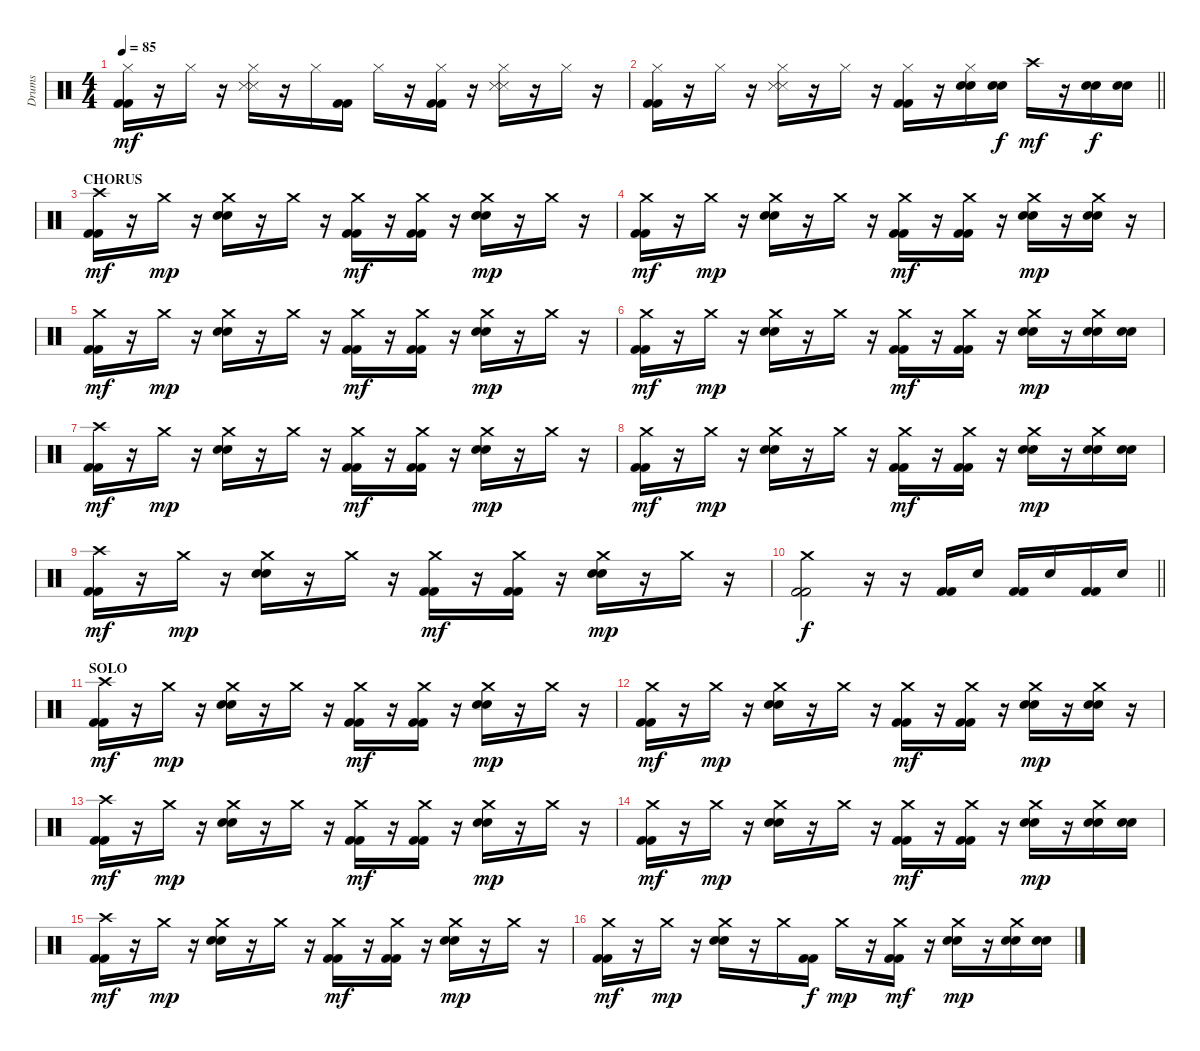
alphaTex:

\track ("Drums" "Drums") {instrument percussion}
\staff {score}
\articulation defaults
\ts (4 4)
\tempo 85
\clef neutral
\ks c
("Hi-Hat (closed)" "Kick (hit) 2" "Kick (hit) 2").16{dy mf} r.16 "Hi-Hat (closed)".16 r.16 ("Hi-Hat (closed)" "Snare (side stick) 3" "Snare (side stick) 3").16 r.16 "Hi-Hat (closed)".16 ("Kick (hit) 2" "Kick (hit) 2").16 "Hi-Hat (closed)".16 r.16 ("Hi-Hat (closed)" "Kick (hit) 2" "Kick (hit) 2").16 r.16 ("Hi-Hat (closed)" "Snare (side stick) 3" "Snare (side stick) 3").16 r.16 "Hi-Hat (closed)".16 r.16 |
\barLineRight lightlight
("Hi-Hat (closed)" "Kick (hit) 2" "Kick (hit) 2").16 r.16 "Hi-Hat (closed)".16 r.16 ("Hi-Hat (closed)" "Snare (side stick) 3" "Snare (side stick) 3").16 r.16 "Hi-Hat (closed)".16 r.16 ("Hi-Hat (closed)" "Kick (hit) 2" "Kick (hit) 2").16 r.16 ("Hi-Hat (closed)" "Electric Snare (hit)" "Electric Snare (hit)").16 ("Electric Snare (hit)" "Electric Snare (hit)").16{dy f} "Crash high (hit)".16{dy mf} r.16 ("Electric Snare (hit)" "Electric Snare (hit)").16{dy f} ("Electric Snare (hit)" "Electric Snare (hit)").16 |
\section ("" "CHORUS")
("Crash high (hit)" "Kick (hit) 2" "Kick (hit) 2").16{dy mf} r.16 "Crash medium (hit)".16{dy mp} r.16 ("Crash medium (hit)" "Snare (hit) 2" "Electric Snare (hit)").16 r.16 "Crash medium (hit)".16 r.16 ("Crash medium (hit)" "Kick (hit) 2" "Kick (hit) 2").16{dy mf} r.16 ("Crash medium (hit)" "Kick (hit) 2" "Kick (hit) 2").16 r.16 ("Crash medium (hit)" "Snare (hit) 2" "Electric Snare (hit)").16{dy mp} r.16 "Crash medium (hit)".16 r.16 |
("Crash medium (hit)" "Kick (hit) 2" "Kick (hit) 2").16{dy mf} r.16 "Crash medium (hit)".16{dy mp} r.16 ("Crash medium (hit)" "Snare (hit) 2" "Electric Snare (hit)").16 r.16 "Crash medium (hit)".16 r.16 ("Crash medium (hit)" "Kick (hit) 2" "Kick (hit) 2").16{dy mf} r.16 ("Crash medium (hit)" "Kick (hit) 2" "Kick (hit) 2").16 r.16 ("Crash medium (hit)" "Snare (hit) 2" "Electric Snare (hit)").16{dy mp} r.16 ("Crash medium (hit)" "Snare (hit) 2" "Electric Snare (hit)").16 r.16 |
("Crash medium (hit)" "Kick (hit) 2" "Kick (hit) 2").16{dy mf} r.16 "Crash medium (hit)".16{dy mp} r.16 ("Crash medium (hit)" "Snare (hit) 2" "Electric Snare (hit)").16 r.16 "Crash medium (hit)".16 r.16 ("Crash medium (hit)" "Kick (hit) 2" "Kick (hit) 2").16{dy mf} r.16 ("Crash medium (hit)" "Kick (hit) 2" "Kick (hit) 2").16 r.16 ("Crash medium (hit)" "Snare (hit) 2" "Electric Snare (hit)").16{dy mp} r.16 "Crash medium (hit)".16 r.16 |
("Crash medium (hit)" "Kick (hit) 2" "Kick (hit) 2").16{dy mf} r.16 "Crash medium (hit)".16{dy mp} r.16 ("Crash medium (hit)" "Snare (hit) 2" "Electric Snare (hit)").16 r.16 "Crash medium (hit)".16 r.16 ("Crash medium (hit)" "Kick (hit) 2" "Kick (hit) 2").16{dy mf} r.16 ("Crash medium (hit)" "Kick (hit) 2" "Kick (hit) 2").16 r.16 ("Crash medium (hit)" "Snare (hit) 2" "Electric Snare (hit)").16{dy mp} r.16 ("Crash medium (hit)" "Snare (hit) 2" "Electric Snare (hit)").16 ("Snare (hit) 2" "Electric Snare (hit)").16 |
("Crash high (hit)" "Kick (hit) 2" "Kick (hit) 2").16{dy mf} r.16 "Crash medium (hit)".16{dy mp} r.16 ("Crash medium (hit)" "Snare (hit) 2" "Electric Snare (hit)").16 r.16 "Crash medium (hit)".16 r.16 ("Crash medium (hit)" "Kick (hit) 2" "Kick (hit) 2").16{dy mf} r.16 ("Crash medium (hit)" "Kick (hit) 2" "Kick (hit) 2").16 r.16 ("Crash medium (hit)" "Snare (hit) 2" "Electric Snare (hit)").16{dy mp} r.16 "Crash medium (hit)".16 r.16 |
("Crash medium (hit)" "Kick (hit) 2" "Kick (hit) 2").16{dy mf} r.16 "Crash medium (hit)".16{dy mp} r.16 ("Crash medium (hit)" "Snare (hit) 2" "Electric Snare (hit)").16 r.16 "Crash medium (hit)".16 r.16 ("Crash medium (hit)" "Kick (hit) 2" "Kick (hit) 2").16{dy mf} r.16 ("Crash medium (hit)" "Kick (hit) 2" "Kick (hit) 2").16 r.16 ("Crash medium (hit)" "Snare (hit) 2" "Electric Snare (hit)").16{dy mp} r.16 ("Crash medium (hit)" "Snare (hit) 2" "Electric Snare (hit)").16 ("Snare (hit) 2" "Electric Snare (hit)").16 |
("Crash high (hit)" "Kick (hit) 2" "Kick (hit) 2").16{dy mf} r.16 "Crash medium (hit)".16{dy mp} r.16 ("Crash medium (hit)" "Snare (hit) 2" "Electric Snare (hit)").16 r.16 "Crash medium (hit)".16 r.16 ("Crash medium (hit)" "Kick (hit) 2" "Kick (hit) 2").16{dy mf} r.16 ("Crash medium (hit)" "Kick (hit) 2" "Kick (hit) 2").16 r.16 ("Crash medium (hit)" "Snare (hit) 2" "Electric Snare (hit)").16{dy mp} r.16 "Crash medium (hit)".16 r.16 |
\barLineRight lightlight
("Crash medium (hit)" "Kick (hit) 2" "Kick (hit) 2").2{dy f} r.16 r.16 ("Kick (hit) 2" "Kick (hit) 2").16 "Electric Snare (hit)".16 ("Kick (hit) 2" "Kick (hit) 2").16 "Electric Snare (hit)".16 ("Kick (hit) 2" "Kick (hit) 2").16 "Electric Snare (hit)".16 |
\section ("" "SOLO")
("Crash high (hit)" "Kick (hit) 2" "Kick (hit) 2").16{dy mf} r.16 "Crash medium (hit)".16{dy mp} r.16 ("Crash medium (hit)" "Snare (hit) 2" "Electric Snare (hit)").16 r.16 "Crash medium (hit)".16 r.16 ("Crash medium (hit)" "Kick (hit) 2" "Kick (hit) 2").16{dy mf} r.16 ("Crash medium (hit)" "Kick (hit) 2" "Kick (hit) 2").16 r.16 ("Crash medium (hit)" "Snare (hit) 2" "Electric Snare (hit)").16{dy mp} r.16 "Crash medium (hit)".16 r.16 |
("Crash medium (hit)" "Kick (hit) 2" "Kick (hit) 2").16{dy mf} r.16 "Crash medium (hit)".16{dy mp} r.16 ("Crash medium (hit)" "Snare (hit) 2" "Electric Snare (hit)").16 r.16 "Crash medium (hit)".16 r.16 ("Crash medium (hit)" "Kick (hit) 2" "Kick (hit) 2").16{dy mf} r.16 ("Crash medium (hit)" "Kick (hit) 2" "Kick (hit) 2").16 r.16 ("Crash medium (hit)" "Snare (hit) 2" "Electric Snare (hit)").16{dy mp} r.16 ("Crash medium (hit)" "Snare (hit) 2" "Electric Snare (hit)").16 r.16 |
("Crash high (hit)" "Kick (hit) 2" "Kick (hit) 2").16{dy mf} r.16 "Crash medium (hit)".16{dy mp} r.16 ("Crash medium (hit)" "Snare (hit) 2" "Electric Snare (hit)").16 r.16 "Crash medium (hit)".16 r.16 ("Crash medium (hit)" "Kick (hit) 2" "Kick (hit) 2").16{dy mf} r.16 ("Crash medium (hit)" "Kick (hit) 2" "Kick (hit) 2").16 r.16 ("Crash medium (hit)" "Snare (hit) 2" "Electric Snare (hit)").16{dy mp} r.16 "Crash medium (hit)".16 r.16 |
("Crash medium (hit)" "Kick (hit) 2" "Kick (hit) 2").16{dy mf} r.16 "Crash medium (hit)".16{dy mp} r.16 ("Crash medium (hit)" "Snare (hit) 2" "Electric Snare (hit)").16 r.16 "Crash medium (hit)".16 r.16 ("Crash medium (hit)" "Kick (hit) 2" "Kick (hit) 2").16{dy mf} r.16 ("Crash medium (hit)" "Kick (hit) 2" "Kick (hit) 2").16 r.16 ("Crash medium (hit)" "Snare (hit) 2" "Electric Snare (hit)").16{dy mp} r.16 ("Crash medium (hit)" "Snare (hit) 2" "Electric Snare (hit)").16 ("Snare (hit) 2" "Electric Snare (hit)").16 |
("Crash high (hit)" "Kick (hit) 2" "Kick (hit) 2").16{dy mf} r.16 "Crash medium (hit)".16{dy mp} r.16 ("Crash medium (hit)" "Snare (hit) 2" "Electric Snare (hit)").16 r.16 "Crash medium (hit)".16 r.16 ("Crash medium (hit)" "Kick (hit) 2" "Kick (hit) 2").16{dy mf} r.16 ("Crash medium (hit)" "Kick (hit) 2" "Kick (hit) 2").16 r.16 ("Crash medium (hit)" "Snare (hit) 2" "Electric Snare (hit)").16{dy mp} r.16 "Crash medium (hit)".16 r.16 |
("Crash medium (hit)" "Kick (hit) 2" "Kick (hit) 2").16{dy mf} r.16 "Crash medium (hit)".16{dy mp} r.16 ("Crash medium (hit)" "Snare (hit) 2" "Electric Snare (hit)").16 r.16 "Crash medium (hit)".16 ("Kick (hit) 2" "Kick (hit) 2").16{dy f} "Crash medium (hit)".16{dy mp} r.16 ("Crash medium (hit)" "Kick (hit) 2" "Kick (hit) 2").16{dy mf} r.16 ("Crash medium (hit)" "Snare (hit) 2" "Electric Snare (hit)").16{dy mp} r.16 ("Crash medium (hit)" "Snare (hit) 2" "Electric Snare (hit)").16 ("Snare (hit) 2" "Electric Snare (hit)").16
